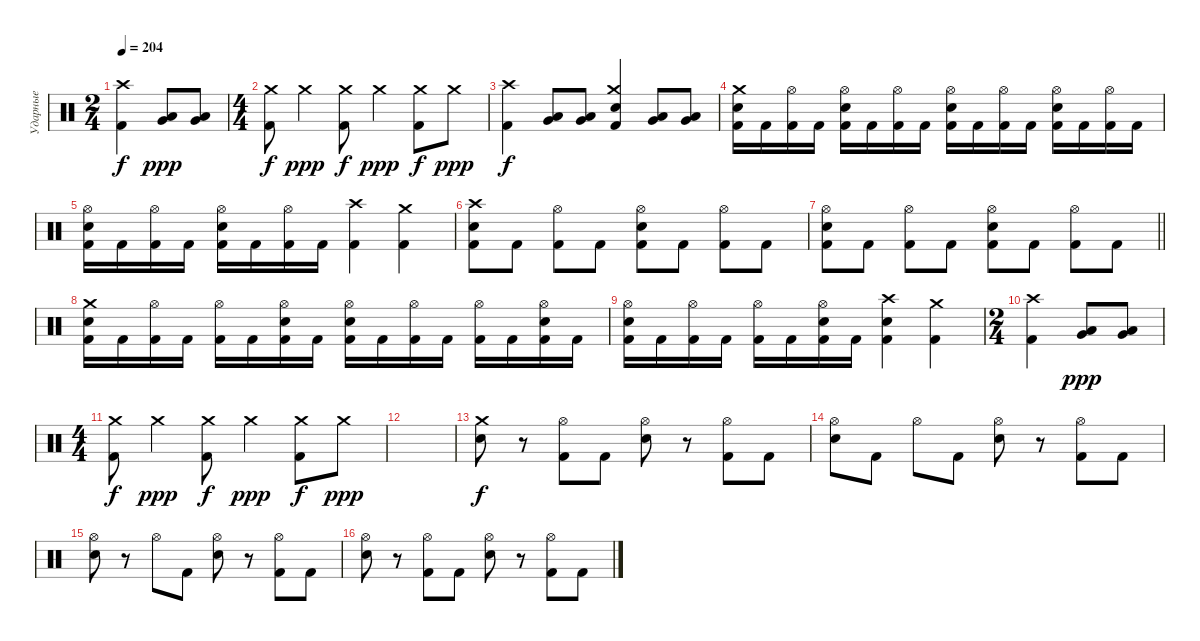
\track ("Ударные" "Ударные") {instrument percussion}
\staff {score}
\articulation defaults
\ts (2 4)
\tempo 204
\clef neutral
\ks c
("Crash high (hit)" "Kick (hit) 2").4{dy f} ("Low Tom (hit)" "Very Low Tom (hit)").8{dy ppp} ("Low Tom (hit)" "Very Low Tom (hit)").8 |
\ts (4 4)
("Crash medium (hit)" "Kick (hit) 2").8{dy f} "Crash medium (hit)".4{dy ppp} ("Crash medium (hit)" "Kick (hit) 2").8{dy f} "Crash medium (hit)".4{dy ppp} ("Crash medium (hit)" "Kick (hit) 2").8{dy f} "Crash medium (hit)".8{dy ppp} |
("Crash high (hit)" "Kick (hit) 2").4{dy f} ("Low Tom (hit)" "Very Low Tom (hit)").8 ("Low Tom (hit)" "Very Low Tom (hit)").8 ("Crash medium (hit)" "Snare (hit) 2" "Kick (hit) 2").4 ("Low Tom (hit)" "Very Low Tom (hit)").8 ("Low Tom (hit)" "Very Low Tom (hit)").8 |
("Crash medium (hit)" "Snare (hit) 2" "Kick (hit) 2").16 "Kick (hit) 2".16 ("Hi-Hat (open)" "Kick (hit) 2").16 "Kick (hit) 2".16 ("Hi-Hat (open)" "Snare (hit) 2" "Kick (hit) 2").16 "Kick (hit) 2".16 ("Hi-Hat (open)" "Kick (hit) 2").16 "Kick (hit) 2".16 ("Hi-Hat (open)" "Snare (hit) 2" "Kick (hit) 2").16 "Kick (hit) 2".16 ("Hi-Hat (open)" "Kick (hit) 2").16 "Kick (hit) 2".16 ("Hi-Hat (open)" "Snare (hit) 2" "Kick (hit) 2").16 "Kick (hit) 2".16 ("Hi-Hat (open)" "Kick (hit) 2").16 "Kick (hit) 2".16 |
("Hi-Hat (open)" "Snare (hit) 2" "Kick (hit) 2").16 "Kick (hit) 2".16 ("Hi-Hat (open)" "Kick (hit) 2").16 "Kick (hit) 2".16 ("Hi-Hat (open)" "Snare (hit) 2" "Kick (hit) 2").16 "Kick (hit) 2".16 ("Hi-Hat (open)" "Kick (hit) 2").16 "Kick (hit) 2".16 ("Crash high (hit)" "Kick (hit) 2").4 ("Crash medium (hit)" "Kick (hit) 2").4 |
("Crash high (hit)" "Snare (hit) 2" "Kick (hit) 2").8 "Kick (hit) 2".8 ("Hi-Hat (open)" "Kick (hit) 2").8 "Kick (hit) 2".8 ("Hi-Hat (open)" "Snare (hit) 2" "Kick (hit) 2").8 "Kick (hit) 2".8 ("Hi-Hat (open)" "Kick (hit) 2").8 "Kick (hit) 2".8 |
\barLineRight lightlight
("Hi-Hat (open)" "Snare (hit) 2" "Kick (hit) 2").8 "Kick (hit) 2".8 ("Hi-Hat (open)" "Kick (hit) 2").8 "Kick (hit) 2".8 ("Hi-Hat (open)" "Snare (hit) 2" "Kick (hit) 2").8 "Kick (hit) 2".8 ("Hi-Hat (open)" "Kick (hit) 2").8 "Kick (hit) 2".8 |
("Crash medium (hit)" "Snare (hit) 2" "Kick (hit) 2").16 "Kick (hit) 2".16 ("Hi-Hat (open)" "Kick (hit) 2").16 "Kick (hit) 2".16 ("Hi-Hat (open)" "Kick (hit) 2").16 "Kick (hit) 2".16 ("Hi-Hat (open)" "Snare (hit) 2" "Kick (hit) 2").16 "Kick (hit) 2".16 ("Hi-Hat (open)" "Snare (hit) 2" "Kick (hit) 2").16 "Kick (hit) 2".16 ("Hi-Hat (open)" "Kick (hit) 2").16 "Kick (hit) 2".16 ("Hi-Hat (open)" "Kick (hit) 2").16 "Kick (hit) 2".16 ("Hi-Hat (open)" "Snare (hit) 2" "Kick (hit) 2").16 "Kick (hit) 2".16 |
("Hi-Hat (open)" "Snare (hit) 2" "Kick (hit) 2").16 "Kick (hit) 2".16 ("Hi-Hat (open)" "Kick (hit) 2").16 "Kick (hit) 2".16 ("Hi-Hat (open)" "Kick (hit) 2").16 "Kick (hit) 2".16 ("Hi-Hat (open)" "Snare (hit) 2" "Kick (hit) 2").16 "Kick (hit) 2".16 ("Crash high (hit)" "Snare (hit) 2" "Kick (hit) 2").4 ("Crash medium (hit)" "Kick (hit) 2").4 |
\ts (2 4)
("Crash high (hit)" "Kick (hit) 2").4 ("Low Tom (hit)" "Very Low Tom (hit)").8{dy ppp} ("Low Tom (hit)" "Very Low Tom (hit)").8 |
\ts (4 4)
("Crash medium (hit)" "Kick (hit) 2").8{dy f} "Crash medium (hit)".4{dy ppp} ("Crash medium (hit)" "Kick (hit) 2").8{dy f} "Crash medium (hit)".4{dy ppp} ("Crash medium (hit)" "Kick (hit) 2").8{dy f} "Crash medium (hit)".8{dy ppp} |
|
("Crash medium (hit)" "Snare (hit) 2").8{dy f} r.8 ("Hi-Hat (open)" "Kick (hit) 2").8 "Kick (hit) 2".8 ("Hi-Hat (open)" "Snare (hit) 2").8 r.8 ("Hi-Hat (open)" "Kick (hit) 2").8 "Kick (hit) 2".8 |
("Hi-Hat (open)" "Snare (hit) 2").8 "Kick (hit) 2".8 "Hi-Hat (open)".8 "Kick (hit) 2".8 ("Hi-Hat (open)" "Snare (hit) 2").8 r.8 ("Hi-Hat (open)" "Kick (hit) 2").8 "Kick (hit) 2".8 |
("Hi-Hat (open)" "Snare (hit) 2").8 r.8 "Hi-Hat (open)".8 "Kick (hit) 2".8 ("Hi-Hat (open)" "Snare (hit) 2").8 r.8 ("Hi-Hat (open)" "Kick (hit) 2").8 "Kick (hit) 2".8 |
("Hi-Hat (open)" "Snare (hit) 2").8 r.8 ("Hi-Hat (open)" "Kick (hit) 2").8 "Kick (hit) 2".8 ("Hi-Hat (open)" "Snare (hit) 2").8 r.8 ("Hi-Hat (open)" "Kick (hit) 2").8 "Kick (hit) 2".8
